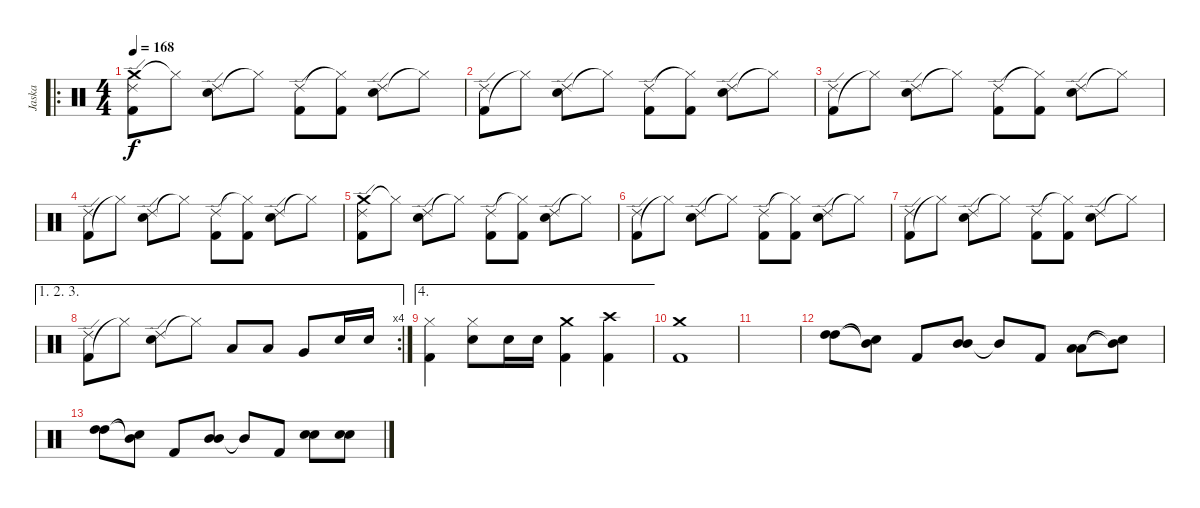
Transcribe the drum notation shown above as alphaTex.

\track ("Jaska" "Jaska") {instrument percussion}
\staff {score}
\articulation defaults
\ro
\ts (4 4)
\tempo 168
\clef neutral
\ks c
("Crash medium (hit)" "Kick (hit) 2" "Ride (edge) 2").8{dy f} "Hi-Hat (closed)"{t}.8 ("Electric Snare (hit)" "Ride (edge) 2").8 "Hi-Hat (closed)"{t}.8 ("Kick (hit) 2" "Ride (edge) 2").8 ("Kick (hit) 2" "Hi-Hat (closed)"{t}).8 ("Electric Snare (hit)" "Ride (edge) 2").8 "Hi-Hat (closed)"{t}.8 |
("Kick (hit) 2" "Ride (edge) 2").8 "Hi-Hat (closed)"{t}.8 ("Electric Snare (hit)" "Ride (edge) 2").8 "Hi-Hat (closed)"{t}.8 ("Kick (hit) 2" "Ride (edge) 2").8 ("Kick (hit) 2" "Hi-Hat (closed)"{t}).8 ("Electric Snare (hit)" "Ride (edge) 2").8 "Hi-Hat (closed)"{t}.8 |
("Kick (hit) 2" "Ride (edge) 2").8 "Hi-Hat (closed)"{t}.8 ("Electric Snare (hit)" "Ride (edge) 2").8 "Hi-Hat (closed)"{t}.8 ("Kick (hit) 2" "Ride (edge) 2").8 ("Kick (hit) 2" "Hi-Hat (closed)"{t}).8 ("Electric Snare (hit)" "Ride (edge) 2").8 "Hi-Hat (closed)"{t}.8 |
("Kick (hit) 2" "Ride (edge) 2").8 "Hi-Hat (closed)"{t}.8 ("Electric Snare (hit)" "Ride (edge) 2").8 "Hi-Hat (closed)"{t}.8 ("Kick (hit) 2" "Ride (edge) 2").8 ("Kick (hit) 2" "Hi-Hat (closed)"{t}).8 ("Electric Snare (hit)" "Ride (edge) 2").8 "Hi-Hat (closed)"{t}.8 |
("Crash medium (hit)" "Kick (hit) 2" "Ride (edge) 2").8 "Hi-Hat (closed)"{t}.8 ("Electric Snare (hit)" "Ride (edge) 2").8 "Hi-Hat (closed)"{t}.8 ("Kick (hit) 2" "Ride (edge) 2").8 ("Kick (hit) 2" "Hi-Hat (closed)"{t}).8 ("Electric Snare (hit)" "Ride (edge) 2").8 "Hi-Hat (closed)"{t}.8 |
("Kick (hit) 2" "Ride (edge) 2").8 "Hi-Hat (closed)"{t}.8 ("Electric Snare (hit)" "Ride (edge) 2").8 "Hi-Hat (closed)"{t}.8 ("Kick (hit) 2" "Ride (edge) 2").8 ("Kick (hit) 2" "Hi-Hat (closed)"{t}).8 ("Electric Snare (hit)" "Ride (edge) 2").8 "Hi-Hat (closed)"{t}.8 |
("Kick (hit) 2" "Ride (edge) 2").8 "Hi-Hat (closed)"{t}.8 ("Electric Snare (hit)" "Ride (edge) 2").8 "Hi-Hat (closed)"{t}.8 ("Kick (hit) 2" "Ride (edge) 2").8 ("Kick (hit) 2" "Hi-Hat (closed)"{t}).8 ("Electric Snare (hit)" "Ride (edge) 2").8 "Hi-Hat (closed)"{t}.8 |
\ae (1 2 3)
\rc 4
("Kick (hit) 2" "Ride (edge) 2").8 "Hi-Hat (closed)"{t}.8 ("Electric Snare (hit)" "Ride (edge) 2").8 "Hi-Hat (closed)"{t}.8 "Low Tom (hit)".8 "Low Tom (hit)".8 "Very Low Tom (hit)".8 "Electric Snare (hit)".16 "Electric Snare (hit)".16 |
\ae 4
("Kick (hit) 2" "Hi-Hat (closed)").4 ("Electric Snare (hit)" "Hi-Hat (closed)").8 "Electric Snare (hit)".16 "Electric Snare (hit)".16 ("Crash medium (hit)" "Kick (hit) 2").4 ("Crash high (hit)" "Kick (hit) 2").4 |
("Kick (hit) 2" "Crash medium (hit)").1 |
|
("High Tom (hit)" "High Tom (hit)").8 ("Snare (hit)"{t} "Mid Tom (hit)"{t}).8 "Kick (hit) 2".8 ("Mid Tom (hit)" "Mid Tom (hit)").8 "Mid Tom (hit)"{t}.8 "Kick (hit) 2".8 ("Low Tom (hit)" "Low Tom (hit)").8 ("Snare (hit)"{t} "Mid Tom (hit)"{t}).8 |
("High Tom (hit)" "High Tom (hit)").8 ("Snare (hit)"{t} "Mid Tom (hit)"{t}).8 "Kick (hit) 2".8 ("Mid Tom (hit)" "Mid Tom (hit)").8 "Mid Tom (hit)"{t}.8 "Kick (hit) 2".8 ("Electric Snare (hit)" "Electric Snare (hit)").8 ("Electric Snare (hit)" "Electric Snare (hit)").8
